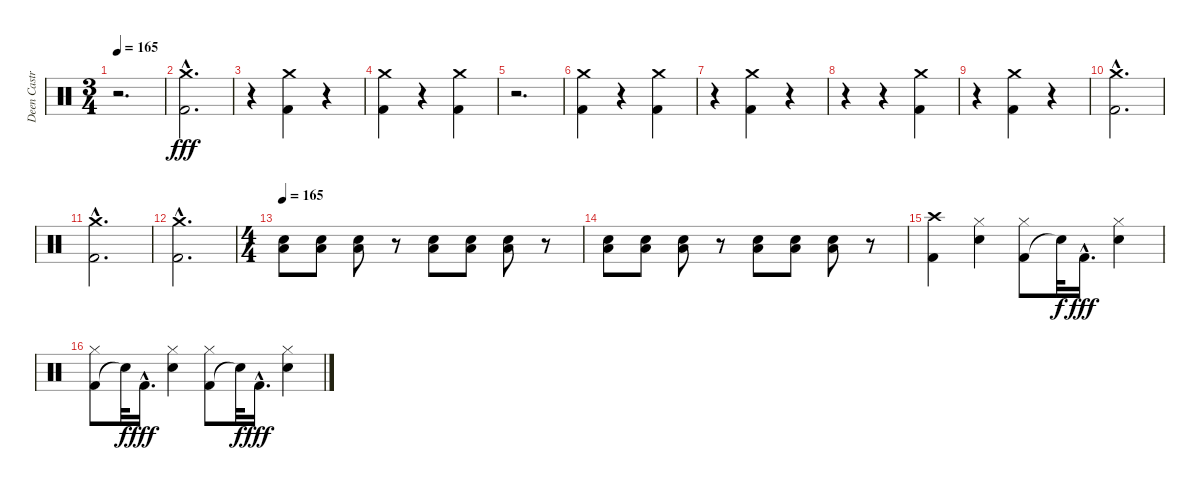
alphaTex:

\track ("Deen Castronovo" "Deen Castr") {instrument percussion}
\staff {score}
\articulation defaults
\ts (3 4)
\tempo 165
\clef neutral
\ks c
r.2{d dy fff} |
("Kick (hit) 2"{hac} "Crash medium (hit)"{hac}).2{d} |
r.4 ("Kick (hit) 2" "Crash medium (hit)").4 r.4 |
("Kick (hit) 2" "Crash medium (hit)").4 r.4 ("Kick (hit) 2" "Crash medium (hit)").4 |
r.2{d} |
("Kick (hit) 2" "Crash medium (hit)").4 r.4 ("Kick (hit) 2" "Crash medium (hit)").4 |
r.4 ("Kick (hit) 2" "Crash medium (hit)").4 r.4 |
r.4 r.4 ("Kick (hit) 2" "Crash medium (hit)").4 |
r.4 ("Kick (hit) 2" "Crash medium (hit)").4 r.4 |
("Kick (hit) 2"{hac} "Crash medium (hit)"{hac}).2{d} |
("Kick (hit) 2"{hac} "Crash medium (hit)"{hac}).2{d} |
("Kick (hit) 2"{hac} "Crash medium (hit)"{hac}).2{d} |
\ts (4 4)
\tempo 165
("Electric Snare (hit)" "Low Tom (hit)").8 ("Electric Snare (hit)" "Low Tom (hit)").8 ("Electric Snare (hit)" "Low Tom (hit)").8 r.8 ("Electric Snare (hit)" "Low Tom (hit)").8 ("Electric Snare (hit)" "Low Tom (hit)").8 ("Electric Snare (hit)" "Low Tom (hit)").8 r.8 |
("Electric Snare (hit)" "Low Tom (hit)").8 ("Electric Snare (hit)" "Low Tom (hit)").8 ("Electric Snare (hit)" "Low Tom (hit)").8 r.8 ("Electric Snare (hit)" "Low Tom (hit)").8 ("Electric Snare (hit)" "Low Tom (hit)").8 ("Electric Snare (hit)" "Low Tom (hit)").8 r.8 |
("Kick (hit) 2" "Crash high (hit)").4 ("Electric Snare (hit)" "Hi-Hat (closed)").4 ("Kick (hit) 2" "Hi-Hat (closed)").8 "Snare (hit)"{t}.32{dy f} "Kick (hit) 2"{hac}.16{d dy fff} ("Electric Snare (hit)" "Hi-Hat (closed)").4 |
("Kick (hit) 2" "Hi-Hat (closed)").8 "Snare (hit)"{t}.32{dy f} "Kick (hit) 2"{hac}.16{d dy fff} ("Electric Snare (hit)" "Hi-Hat (closed)").4 ("Kick (hit) 2" "Hi-Hat (closed)").8 "Snare (hit)"{t}.32{dy f} "Kick (hit) 2"{hac}.16{d dy fff} ("Electric Snare (hit)" "Hi-Hat (closed)").4
